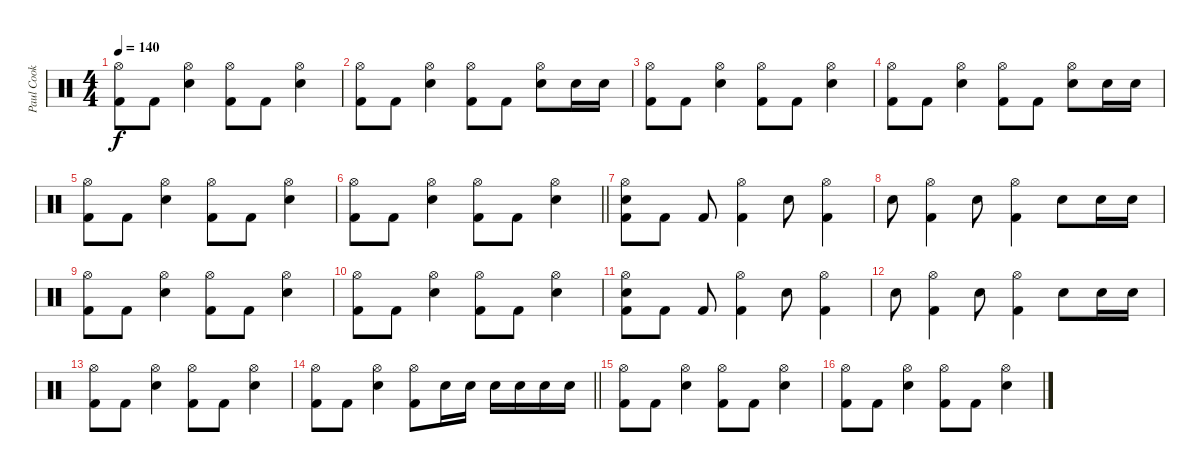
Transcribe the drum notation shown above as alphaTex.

\track ("Paul Cook" "Paul Cook") {instrument percussion}
\staff {score}
\articulation defaults
\ts (4 4)
\tempo 140
\clef neutral
\ks c
("Hi-Hat (open)" "Kick (hit) 2").8{dy f} "Kick (hit) 2".8 ("Hi-Hat (open)" "Electric Snare (hit)").4 ("Hi-Hat (open)" "Kick (hit) 2").8 "Kick (hit) 2".8 ("Hi-Hat (open)" "Electric Snare (hit)").4 |
("Hi-Hat (open)" "Kick (hit) 2").8 "Kick (hit) 2".8 ("Hi-Hat (open)" "Electric Snare (hit)").4 ("Hi-Hat (open)" "Kick (hit) 2").8 "Kick (hit) 2".8 ("Hi-Hat (open)" "Electric Snare (hit)").8 "Electric Snare (hit)".16 "Electric Snare (hit)".16 |
("Hi-Hat (open)" "Kick (hit) 2").8 "Kick (hit) 2".8 ("Hi-Hat (open)" "Electric Snare (hit)").4 ("Hi-Hat (open)" "Kick (hit) 2").8 "Kick (hit) 2".8 ("Hi-Hat (open)" "Electric Snare (hit)").4 |
("Hi-Hat (open)" "Kick (hit) 2").8 "Kick (hit) 2".8 ("Hi-Hat (open)" "Electric Snare (hit)").4 ("Hi-Hat (open)" "Kick (hit) 2").8 "Kick (hit) 2".8 ("Hi-Hat (open)" "Electric Snare (hit)").8 "Electric Snare (hit)".16 "Electric Snare (hit)".16 |
("Hi-Hat (open)" "Kick (hit) 2").8 "Kick (hit) 2".8 ("Hi-Hat (open)" "Electric Snare (hit)").4 ("Hi-Hat (open)" "Kick (hit) 2").8 "Kick (hit) 2".8 ("Hi-Hat (open)" "Electric Snare (hit)").4 |
\barLineRight lightlight
("Hi-Hat (open)" "Kick (hit) 2").8 "Kick (hit) 2".8 ("Hi-Hat (open)" "Electric Snare (hit)").4 ("Hi-Hat (open)" "Kick (hit) 2").8 "Kick (hit) 2".8 ("Hi-Hat (open)" "Electric Snare (hit)").4 |
("Hi-Hat (open)" "Electric Snare (hit)" "Kick (hit) 2").8 "Kick (hit) 2".8 "Kick (hit) 2".8 ("Hi-Hat (open)" "Kick (hit) 2").4 "Electric Snare (hit)".8 ("Hi-Hat (open)" "Kick (hit) 2").4 |
"Electric Snare (hit)".8 ("Hi-Hat (open)" "Kick (hit) 2").4 "Electric Snare (hit)".8 ("Hi-Hat (open)" "Kick (hit) 2").4 "Electric Snare (hit)".8 "Electric Snare (hit)".16 "Electric Snare (hit)".16 |
("Hi-Hat (open)" "Kick (hit) 2").8 "Kick (hit) 2".8 ("Hi-Hat (open)" "Electric Snare (hit)").4 ("Hi-Hat (open)" "Kick (hit) 2").8 "Kick (hit) 2".8 ("Hi-Hat (open)" "Electric Snare (hit)").4 |
("Hi-Hat (open)" "Kick (hit) 2").8 "Kick (hit) 2".8 ("Hi-Hat (open)" "Electric Snare (hit)").4 ("Hi-Hat (open)" "Kick (hit) 2").8 "Kick (hit) 2".8 ("Hi-Hat (open)" "Electric Snare (hit)").4 |
("Hi-Hat (open)" "Electric Snare (hit)" "Kick (hit) 2").8 "Kick (hit) 2".8 "Kick (hit) 2".8 ("Hi-Hat (open)" "Kick (hit) 2").4 "Electric Snare (hit)".8 ("Hi-Hat (open)" "Kick (hit) 2").4 |
"Electric Snare (hit)".8 ("Hi-Hat (open)" "Kick (hit) 2").4 "Electric Snare (hit)".8 ("Hi-Hat (open)" "Kick (hit) 2").4 "Electric Snare (hit)".8 "Electric Snare (hit)".16 "Electric Snare (hit)".16 |
("Hi-Hat (open)" "Kick (hit) 2").8 "Kick (hit) 2".8 ("Hi-Hat (open)" "Electric Snare (hit)").4 ("Hi-Hat (open)" "Kick (hit) 2").8 "Kick (hit) 2".8 ("Hi-Hat (open)" "Electric Snare (hit)").4 |
\barLineRight lightlight
("Hi-Hat (open)" "Kick (hit) 2").8 "Kick (hit) 2".8 ("Hi-Hat (open)" "Electric Snare (hit)").4 ("Hi-Hat (open)" "Kick (hit) 2").8 "Electric Snare (hit)".16 "Electric Snare (hit)".16 "Electric Snare (hit)".16 "Electric Snare (hit)".16 "Electric Snare (hit)".16 "Electric Snare (hit)".16 |
("Hi-Hat (open)" "Kick (hit) 2").8 "Kick (hit) 2".8 ("Hi-Hat (open)" "Electric Snare (hit)").4 ("Hi-Hat (open)" "Kick (hit) 2").8 "Kick (hit) 2".8 ("Hi-Hat (open)" "Electric Snare (hit)").4 |
("Hi-Hat (open)" "Kick (hit) 2").8 "Kick (hit) 2".8 ("Hi-Hat (open)" "Electric Snare (hit)").4 ("Hi-Hat (open)" "Kick (hit) 2").8 "Kick (hit) 2".8 ("Hi-Hat (open)" "Electric Snare (hit)").4
